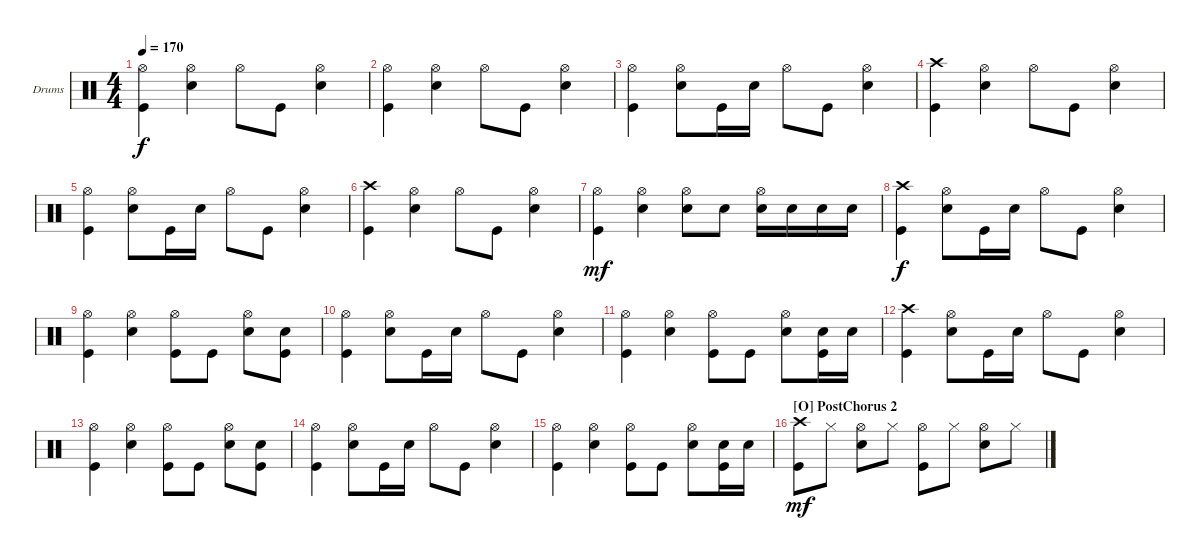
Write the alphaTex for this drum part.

\defaultSystemsLayout 4
\bracketExtendMode groupsimilarinstruments
\firstSystemTrackNameOrientation horizontal
\otherSystemsTrackNameOrientation horizontal
\track ("Drumkit" "Drums") {instrument percussion}
\staff {score}
\articulation defaults
\ts (4 4)
\tempo 170
\clef neutral
\ks c
("Kick (hit)" "Hi-Hat (open)").4{dy f} ("Hi-Hat (open)" "Snare (hit) 2").4 "Hi-Hat (open)".8 "Kick (hit)".8 ("Hi-Hat (open)" "Snare (hit) 2").4 |
("Kick (hit)" "Hi-Hat (open)").4 ("Hi-Hat (open)" "Snare (hit) 2").4 "Hi-Hat (open)".8 "Kick (hit)".8 ("Hi-Hat (open)" "Snare (hit) 2").4 |
("Hi-Hat (open)" "Kick (hit)").4 ("Hi-Hat (open)" "Snare (hit) 2").8 "Kick (hit)".16 "Snare (hit) 2".16 "Hi-Hat (open)".8 "Kick (hit)".8 ("Hi-Hat (open)" "Snare (hit) 2").4 |
("Crash high (hit)" "Kick (hit)").4 ("Hi-Hat (open)" "Snare (hit) 2").4 "Hi-Hat (open)".8 "Kick (hit)".8 ("Hi-Hat (open)" "Snare (hit) 2").4 |
("Hi-Hat (open)" "Kick (hit)").4 ("Hi-Hat (open)" "Snare (hit) 2").8 "Kick (hit)".16 "Snare (hit) 2".16 "Hi-Hat (open)".8 "Kick (hit)".8 ("Hi-Hat (open)" "Snare (hit) 2").4 |
("Kick (hit)" "Crash high (hit)").4 ("Hi-Hat (open)" "Snare (hit) 2").4 "Hi-Hat (open)".8 "Kick (hit)".8 ("Hi-Hat (open)" "Snare (hit) 2").4 |
("Kick (hit)" "Hi-Hat (open)").4{dy mf} ("Hi-Hat (open)" "Snare (hit) 2").4 ("Snare (hit) 2" "Hi-Hat (open)").8 "Snare (hit) 2".8 ("Hi-Hat (open)" "Snare (hit) 2").16 "Snare (hit) 2".16 "Snare (hit) 2".16 "Snare (hit) 2".16 |
("Crash high (hit)" "Kick (hit)").4{dy f} ("Hi-Hat (open)" "Snare (hit) 2").8 "Kick (hit)".16 "Snare (hit) 2".16 "Hi-Hat (open)".8 "Kick (hit)".8 ("Hi-Hat (open)" "Snare (hit) 2").4 |
("Hi-Hat (open)" "Kick (hit)").4 ("Hi-Hat (open)" "Snare (hit) 2").4 ("Hi-Hat (open)" "Kick (hit)").8 "Kick (hit)".8 ("Hi-Hat (open)" "Snare (hit) 2").8 ("Snare (hit) 2" "Kick (hit)").8 |
("Hi-Hat (open)" "Kick (hit)").4 ("Hi-Hat (open)" "Snare (hit) 2").8 "Kick (hit)".16 "Snare (hit) 2".16 "Hi-Hat (open)".8 "Kick (hit)".8 ("Hi-Hat (open)" "Snare (hit) 2").4 |
("Hi-Hat (open)" "Kick (hit)").4 ("Hi-Hat (open)" "Snare (hit) 2").4 ("Hi-Hat (open)" "Kick (hit)").8 "Kick (hit)".8 ("Hi-Hat (open)" "Snare (hit) 2").8 ("Snare (hit) 2" "Kick (hit)").16 "Snare (hit) 2".16 |
("Crash high (hit)" "Kick (hit)").4 ("Hi-Hat (open)" "Snare (hit) 2").8 "Kick (hit)".16 "Snare (hit) 2".16 "Hi-Hat (open)".8 "Kick (hit)".8 ("Hi-Hat (open)" "Snare (hit) 2").4 |
("Hi-Hat (open)" "Kick (hit)").4 ("Hi-Hat (open)" "Snare (hit) 2").4 ("Hi-Hat (open)" "Kick (hit)").8 "Kick (hit)".8 ("Hi-Hat (open)" "Snare (hit) 2").8 ("Snare (hit) 2" "Kick (hit)").8 |
("Hi-Hat (open)" "Kick (hit)").4 ("Hi-Hat (open)" "Snare (hit) 2").8 "Kick (hit)".16 "Snare (hit) 2".16 "Hi-Hat (open)".8 "Kick (hit)".8 ("Hi-Hat (open)" "Snare (hit) 2").4 |
("Hi-Hat (open)" "Kick (hit)").4 ("Hi-Hat (open)" "Snare (hit) 2").4 ("Hi-Hat (open)" "Kick (hit)").8 "Kick (hit)".8 ("Hi-Hat (open)" "Snare (hit) 2").8 ("Snare (hit) 2" "Kick (hit)").16 "Snare (hit) 2".16 |
\section ("O" "PostChorus 2")
("Crash high (hit)" "Kick (hit)").8{dy mf} "Hi-Hat (closed)".8 ("Hi-Hat (open)" "Snare (hit) 2").8 "Hi-Hat (closed)".8 ("Kick (hit)" "Hi-Hat (open)").8 "Hi-Hat (closed)".8 ("Hi-Hat (open)" "Snare (hit) 2").8 "Hi-Hat (closed)".8
